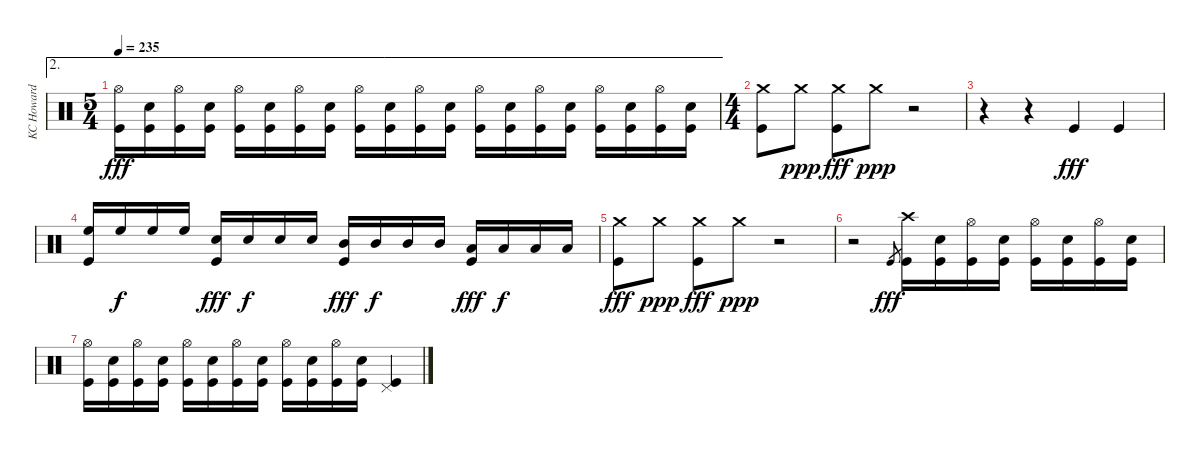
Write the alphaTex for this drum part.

\track ("KC Howard" "KC Howard") {instrument percussion}
\staff {score}
\articulation defaults
\ae 2
\ts (5 4)
\tempo 235
\clef neutral
\ks c
("Hi-Hat (open)" "Kick (hit)").16{dy fff} ("Electric Snare (hit)" "Kick (hit)").16 ("Hi-Hat (open)" "Kick (hit)").16 ("Electric Snare (hit)" "Kick (hit)").16 ("Hi-Hat (open)" "Kick (hit)").16 ("Electric Snare (hit)" "Kick (hit)").16 ("Hi-Hat (open)" "Kick (hit)").16 ("Electric Snare (hit)" "Kick (hit)").16 ("Hi-Hat (open)" "Kick (hit)").16 ("Electric Snare (hit)" "Kick (hit)").16 ("Hi-Hat (open)" "Kick (hit)").16 ("Electric Snare (hit)" "Kick (hit)").16 ("Hi-Hat (open)" "Kick (hit)").16 ("Electric Snare (hit)" "Kick (hit)").16 ("Hi-Hat (open)" "Kick (hit)").16 ("Electric Snare (hit)" "Kick (hit)").16 ("Hi-Hat (open)" "Kick (hit)").16 ("Electric Snare (hit)" "Kick (hit)").16 ("Hi-Hat (open)" "Kick (hit)").16 ("Electric Snare (hit)" "Kick (hit)").16 |
\ts (4 4)
("Crash medium (hit)" "Kick (hit)").8 "Crash medium (hit)".8{dy ppp} ("Crash medium (hit)" "Kick (hit)").8{dy fff} "Crash medium (hit)".8{dy ppp} r.2 |
r.4 r.4 "Kick (hit)".4{dy fff} "Kick (hit)".4 |
("High Floor Tom (hit)" "Kick (hit)").16 "High Floor Tom (hit)".16{dy f} "High Floor Tom (hit)".16 "High Floor Tom (hit)".16 ("Electric Snare (hit)" "Kick (hit)").16{dy fff} "Electric Snare (hit)".16{dy f} "Electric Snare (hit)".16 "Electric Snare (hit)".16 ("Mid Tom (hit)" "Kick (hit)").16{dy fff} "Mid Tom (hit)".16{dy f} "Mid Tom (hit)".16 "Mid Tom (hit)".16 ("Low Tom (hit)" "Kick (hit)").16{dy fff} "Low Tom (hit)".16{dy f} "Low Tom (hit)".16 "Low Tom (hit)".16 |
("Crash medium (hit)" "Kick (hit)").8{dy fff} "Crash medium (hit)".8{dy ppp} ("Crash medium (hit)" "Kick (hit)").8{dy fff} "Crash medium (hit)".8{dy ppp} r.2 |
r.2 "Kick (hit)".8{gr dy fff} ("Crash high (hit)" "Kick (hit)").16 ("Electric Snare (hit)" "Kick (hit)").16 ("Hi-Hat (open)" "Kick (hit)").16 ("Electric Snare (hit)" "Kick (hit)").16 ("Hi-Hat (open)" "Kick (hit)").16 ("Electric Snare (hit)" "Kick (hit)").16 ("Hi-Hat (open)" "Kick (hit)").16 ("Electric Snare (hit)" "Kick (hit)").16 |
("Hi-Hat (open)" "Kick (hit)").16 ("Electric Snare (hit)" "Kick (hit)").16 ("Hi-Hat (open)" "Kick (hit)").16 ("Electric Snare (hit)" "Kick (hit)").16 ("Hi-Hat (open)" "Kick (hit)").16 ("Electric Snare (hit)" "Kick (hit)").16 ("Hi-Hat (open)" "Kick (hit)").16 ("Electric Snare (hit)" "Kick (hit)").16 ("Hi-Hat (open)" "Kick (hit)").16 ("Electric Snare (hit)" "Kick (hit)").16 ("Hi-Hat (open)" "Kick (hit)").16 ("Electric Snare (hit)" "Kick (hit)").16 ("Pedal Hi-Hat (hit)" "Kick (hit)").4
